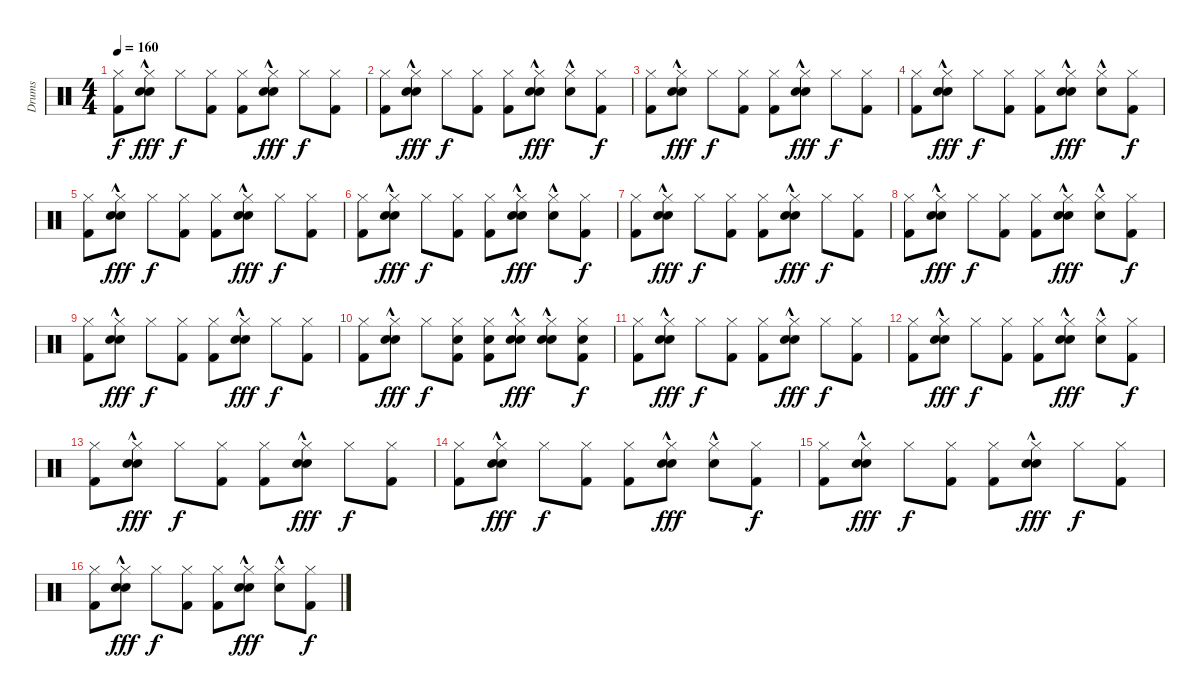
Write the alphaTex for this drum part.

\track ("Drums" "Drums") {instrument percussion}
\staff {score}
\articulation defaults
\ts (4 4)
\tempo 160
\clef neutral
\ks c
("Hi-Hat (closed)" "Kick (hit) 2").8{dy f} ("Hi-Hat (closed)" "Electric Snare (hit)" "Hand Clap (hit)"{hac}).8{dy fff} "Hi-Hat (closed)".8{dy f} ("Hi-Hat (closed)" "Kick (hit) 2").8 ("Hi-Hat (closed)" "Kick (hit) 2").8 ("Hi-Hat (closed)" "Electric Snare (hit)" "Hand Clap (hit)"{hac}).8{dy fff} "Hi-Hat (closed)".8{dy f} ("Hi-Hat (closed)" "Kick (hit) 2").8 |
("Hi-Hat (closed)" "Kick (hit) 2").8 ("Hi-Hat (closed)" "Electric Snare (hit)" "Hand Clap (hit)"{hac}).8{dy fff} "Hi-Hat (closed)".8{dy f} ("Hi-Hat (closed)" "Kick (hit) 2").8 ("Hi-Hat (closed)" "Kick (hit) 2").8 ("Hi-Hat (closed)" "Electric Snare (hit)" "Hand Clap (hit)"{hac}).8{dy fff} ("Hi-Hat (closed)" "Hand Clap (hit)"{hac}).8 ("Hi-Hat (closed)" "Kick (hit) 2").8{dy f} |
("Hi-Hat (closed)" "Kick (hit) 2").8 ("Hi-Hat (closed)" "Electric Snare (hit)" "Hand Clap (hit)"{hac}).8{dy fff} "Hi-Hat (closed)".8{dy f} ("Hi-Hat (closed)" "Kick (hit) 2").8 ("Hi-Hat (closed)" "Kick (hit) 2").8 ("Hi-Hat (closed)" "Electric Snare (hit)" "Hand Clap (hit)"{hac}).8{dy fff} "Hi-Hat (closed)".8{dy f} ("Hi-Hat (closed)" "Kick (hit) 2").8 |
("Hi-Hat (closed)" "Kick (hit) 2").8 ("Hi-Hat (closed)" "Electric Snare (hit)" "Hand Clap (hit)"{hac}).8{dy fff} "Hi-Hat (closed)".8{dy f} ("Hi-Hat (closed)" "Kick (hit) 2").8 ("Hi-Hat (closed)" "Kick (hit) 2").8 ("Hi-Hat (closed)" "Electric Snare (hit)" "Hand Clap (hit)"{hac}).8{dy fff} ("Hi-Hat (closed)" "Hand Clap (hit)"{hac}).8 ("Hi-Hat (closed)" "Kick (hit) 2").8{dy f} |
("Hi-Hat (closed)" "Kick (hit) 2").8 ("Hi-Hat (closed)" "Electric Snare (hit)" "Hand Clap (hit)"{hac}).8{dy fff} "Hi-Hat (closed)".8{dy f} ("Hi-Hat (closed)" "Kick (hit) 2").8 ("Hi-Hat (closed)" "Kick (hit) 2").8 ("Hi-Hat (closed)" "Electric Snare (hit)" "Hand Clap (hit)"{hac}).8{dy fff} "Hi-Hat (closed)".8{dy f} ("Hi-Hat (closed)" "Kick (hit) 2").8 |
("Hi-Hat (closed)" "Kick (hit) 2").8 ("Hi-Hat (closed)" "Electric Snare (hit)" "Hand Clap (hit)"{hac}).8{dy fff} "Hi-Hat (closed)".8{dy f} ("Hi-Hat (closed)" "Kick (hit) 2").8 ("Hi-Hat (closed)" "Kick (hit) 2").8 ("Hi-Hat (closed)" "Electric Snare (hit)" "Hand Clap (hit)"{hac}).8{dy fff} ("Hi-Hat (closed)" "Hand Clap (hit)"{hac}).8 ("Hi-Hat (closed)" "Kick (hit) 2").8{dy f} |
("Hi-Hat (closed)" "Kick (hit) 2").8 ("Hi-Hat (closed)" "Electric Snare (hit)" "Hand Clap (hit)"{hac}).8{dy fff} "Hi-Hat (closed)".8{dy f} ("Hi-Hat (closed)" "Kick (hit) 2").8 ("Hi-Hat (closed)" "Kick (hit) 2").8 ("Hi-Hat (closed)" "Electric Snare (hit)" "Hand Clap (hit)"{hac}).8{dy fff} "Hi-Hat (closed)".8{dy f} ("Hi-Hat (closed)" "Kick (hit) 2").8 |
("Hi-Hat (closed)" "Kick (hit) 2").8 ("Hi-Hat (closed)" "Electric Snare (hit)" "Hand Clap (hit)"{hac}).8{dy fff} "Hi-Hat (closed)".8{dy f} ("Hi-Hat (closed)" "Kick (hit) 2").8 ("Hi-Hat (closed)" "Kick (hit) 2").8 ("Hi-Hat (closed)" "Electric Snare (hit)" "Hand Clap (hit)"{hac}).8{dy fff} ("Hi-Hat (closed)" "Hand Clap (hit)"{hac}).8 ("Hi-Hat (closed)" "Kick (hit) 2").8{dy f} |
("Hi-Hat (closed)" "Kick (hit) 2").8 ("Hi-Hat (closed)" "Electric Snare (hit)" "Hand Clap (hit)"{hac}).8{dy fff} "Hi-Hat (closed)".8{dy f} ("Hi-Hat (closed)" "Kick (hit) 2").8 ("Hi-Hat (closed)" "Kick (hit) 2").8 ("Hi-Hat (closed)" "Electric Snare (hit)" "Hand Clap (hit)"{hac}).8{dy fff} "Hi-Hat (closed)".8{dy f} ("Hi-Hat (closed)" "Kick (hit) 2").8 |
("Hi-Hat (closed)" "Kick (hit) 2").8 ("Hi-Hat (closed)" "Electric Snare (hit)" "Hand Clap (hit)"{hac}).8{dy fff} "Hi-Hat (closed)".8{dy f} ("Hi-Hat (closed)" "Electric Snare (hit)" "Kick (hit) 2").8 ("Hi-Hat (closed)" "Electric Snare (hit)" "Kick (hit) 2").8 ("Hi-Hat (closed)" "Electric Snare (hit)" "Hand Clap (hit)"{hac}).8{dy fff} ("Hi-Hat (closed)" "Electric Snare (hit)" "Hand Clap (hit)"{hac}).8 ("Hi-Hat (closed)" "Electric Snare (hit)" "Kick (hit) 2").8{dy f} |
("Hi-Hat (closed)" "Kick (hit) 2").8 ("Hi-Hat (closed)" "Electric Snare (hit)" "Hand Clap (hit)"{hac}).8{dy fff} "Hi-Hat (closed)".8{dy f} ("Hi-Hat (closed)" "Kick (hit) 2").8 ("Hi-Hat (closed)" "Kick (hit) 2").8 ("Hi-Hat (closed)" "Electric Snare (hit)" "Hand Clap (hit)"{hac}).8{dy fff} "Hi-Hat (closed)".8{dy f} ("Hi-Hat (closed)" "Kick (hit) 2").8 |
("Hi-Hat (closed)" "Kick (hit) 2").8 ("Hi-Hat (closed)" "Electric Snare (hit)" "Hand Clap (hit)"{hac}).8{dy fff} "Hi-Hat (closed)".8{dy f} ("Hi-Hat (closed)" "Kick (hit) 2").8 ("Hi-Hat (closed)" "Kick (hit) 2").8 ("Hi-Hat (closed)" "Electric Snare (hit)" "Hand Clap (hit)"{hac}).8{dy fff} ("Hi-Hat (closed)" "Hand Clap (hit)"{hac}).8 ("Hi-Hat (closed)" "Kick (hit) 2").8{dy f} |
("Hi-Hat (closed)" "Kick (hit) 2").8 ("Hi-Hat (closed)" "Electric Snare (hit)" "Hand Clap (hit)"{hac}).8{dy fff} "Hi-Hat (closed)".8{dy f} ("Hi-Hat (closed)" "Kick (hit) 2").8 ("Hi-Hat (closed)" "Kick (hit) 2").8 ("Hi-Hat (closed)" "Electric Snare (hit)" "Hand Clap (hit)"{hac}).8{dy fff} "Hi-Hat (closed)".8{dy f} ("Hi-Hat (closed)" "Kick (hit) 2").8 |
("Hi-Hat (closed)" "Kick (hit) 2").8 ("Hi-Hat (closed)" "Electric Snare (hit)" "Hand Clap (hit)"{hac}).8{dy fff} "Hi-Hat (closed)".8{dy f} ("Hi-Hat (closed)" "Kick (hit) 2").8 ("Hi-Hat (closed)" "Kick (hit) 2").8 ("Hi-Hat (closed)" "Electric Snare (hit)" "Hand Clap (hit)"{hac}).8{dy fff} ("Hi-Hat (closed)" "Hand Clap (hit)"{hac}).8 ("Hi-Hat (closed)" "Kick (hit) 2").8{dy f} |
("Hi-Hat (closed)" "Kick (hit) 2").8 ("Hi-Hat (closed)" "Electric Snare (hit)" "Hand Clap (hit)"{hac}).8{dy fff} "Hi-Hat (closed)".8{dy f} ("Hi-Hat (closed)" "Kick (hit) 2").8 ("Hi-Hat (closed)" "Kick (hit) 2").8 ("Hi-Hat (closed)" "Electric Snare (hit)" "Hand Clap (hit)"{hac}).8{dy fff} "Hi-Hat (closed)".8{dy f} ("Hi-Hat (closed)" "Kick (hit) 2").8 |
("Hi-Hat (closed)" "Kick (hit) 2").8 ("Hi-Hat (closed)" "Electric Snare (hit)" "Hand Clap (hit)"{hac}).8{dy fff} "Hi-Hat (closed)".8{dy f} ("Hi-Hat (closed)" "Kick (hit) 2").8 ("Hi-Hat (closed)" "Kick (hit) 2").8 ("Hi-Hat (closed)" "Electric Snare (hit)" "Hand Clap (hit)"{hac}).8{dy fff} ("Hi-Hat (closed)" "Hand Clap (hit)"{hac}).8 ("Hi-Hat (closed)" "Kick (hit) 2").8{dy f}
